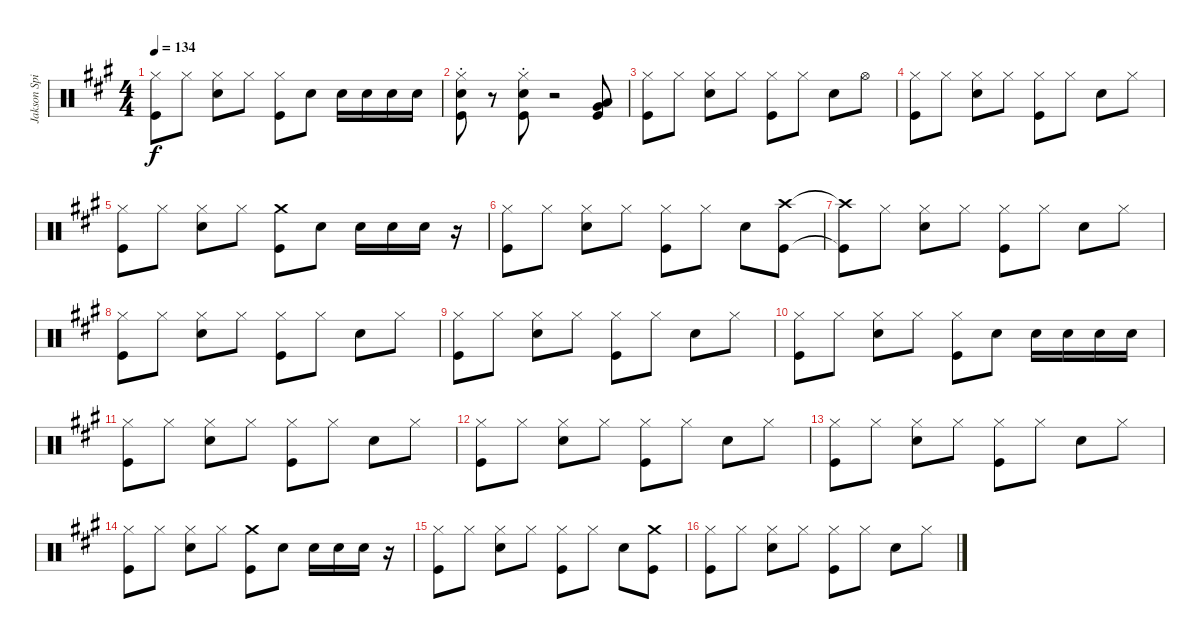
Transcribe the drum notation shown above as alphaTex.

\track ("Jakson Spires Drums" "Jakson Spi") {instrument percussion}
\staff {score}
\articulation defaults
\ts (4 4)
\tempo 134
\clef neutral
\ks a
("Hi-Hat (closed)" "Kick (hit)").8{dy f} "Hi-Hat (closed)".8 ("Hi-Hat (closed)" "Snare (hit) 2").8 "Hi-Hat (closed)".8 ("Hi-Hat (closed)" "Kick (hit)").8 "Snare (hit) 2".8 "Snare (hit) 2".16 "Snare (hit) 2".16 "Snare (hit) 2".16 "Snare (hit) 2".16 |
("Hi-Hat (closed)" "Snare (hit) 2" "Kick (hit)"{st}).8 r.8 ("Hi-Hat (closed)" "Snare (hit) 2" "Kick (hit)"{st}).8 r.2 ("Very Low Tom (hit)" "Low Floor Tom (hit)" "Kick (hit)").8 |
("Hi-Hat (closed)" "Kick (hit)").8 "Hi-Hat (closed)".8 ("Hi-Hat (closed)" "Snare (hit) 2").8 "Hi-Hat (closed)".8 ("Hi-Hat (closed)" "Kick (hit)").8 "Hi-Hat (closed)".8 "Snare (hit) 2".8 "Hi-Hat (open)".8 |
("Hi-Hat (closed)" "Kick (hit)").8 "Hi-Hat (closed)".8 ("Hi-Hat (closed)" "Snare (hit) 2").8 "Hi-Hat (closed)".8 ("Hi-Hat (closed)" "Kick (hit)").8 "Hi-Hat (closed)".8 "Snare (hit) 2".8 "Hi-Hat (closed)".8 |
("Hi-Hat (closed)" "Kick (hit)").8 "Hi-Hat (closed)".8 ("Hi-Hat (closed)" "Snare (hit) 2").8 "Hi-Hat (closed)".8 ("Crash medium (hit)" "Kick (hit)").8 "Snare (hit) 2".8 "Snare (hit) 2".16 "Snare (hit) 2".16 "Snare (hit) 2".16 r.16 |
("Hi-Hat (closed)" "Kick (hit)").8 "Hi-Hat (closed)".8 ("Hi-Hat (closed)" "Snare (hit) 2").8 "Hi-Hat (closed)".8 ("Hi-Hat (closed)" "Kick (hit)").8 "Hi-Hat (closed)".8 "Snare (hit) 2".8 ("Crash high (hit)" "Kick (hit)").8 |
("Crash high (hit)"{t} "Kick (hit)"{t}).8 "Hi-Hat (closed)".8 ("Hi-Hat (closed)" "Snare (hit) 2").8 "Hi-Hat (closed)".8 ("Hi-Hat (closed)" "Kick (hit)").8 "Hi-Hat (closed)".8 "Snare (hit) 2".8 "Hi-Hat (closed)".8 |
("Hi-Hat (closed)" "Kick (hit)").8 "Hi-Hat (closed)".8 ("Hi-Hat (closed)" "Snare (hit) 2").8 "Hi-Hat (closed)".8 ("Hi-Hat (closed)" "Kick (hit)").8 "Hi-Hat (closed)".8 "Snare (hit) 2".8 "Hi-Hat (closed)".8 |
("Hi-Hat (closed)" "Kick (hit)").8 "Hi-Hat (closed)".8 ("Hi-Hat (closed)" "Snare (hit) 2").8 "Hi-Hat (closed)".8 ("Hi-Hat (closed)" "Kick (hit)").8 "Hi-Hat (closed)".8 "Snare (hit) 2".8 "Hi-Hat (closed)".8 |
("Hi-Hat (closed)" "Kick (hit)").8 "Hi-Hat (closed)".8 ("Hi-Hat (closed)" "Snare (hit) 2").8 "Hi-Hat (closed)".8 ("Hi-Hat (closed)" "Kick (hit)").8 "Snare (hit) 2".8 "Snare (hit) 2".16 "Snare (hit) 2".16 "Snare (hit) 2".16 "Snare (hit) 2".16 |
("Hi-Hat (closed)" "Kick (hit)").8 "Hi-Hat (closed)".8 ("Hi-Hat (closed)" "Snare (hit) 2").8 "Hi-Hat (closed)".8 ("Hi-Hat (closed)" "Kick (hit)").8 "Hi-Hat (closed)".8 "Snare (hit) 2".8 "Hi-Hat (closed)".8 |
("Hi-Hat (closed)" "Kick (hit)").8 "Hi-Hat (closed)".8 ("Hi-Hat (closed)" "Snare (hit) 2").8 "Hi-Hat (closed)".8 ("Hi-Hat (closed)" "Kick (hit)").8 "Hi-Hat (closed)".8 "Snare (hit) 2".8 "Hi-Hat (closed)".8 |
("Hi-Hat (closed)" "Kick (hit)").8 "Hi-Hat (closed)".8 ("Hi-Hat (closed)" "Snare (hit) 2").8 "Hi-Hat (closed)".8 ("Hi-Hat (closed)" "Kick (hit)").8 "Hi-Hat (closed)".8 "Snare (hit) 2".8 "Hi-Hat (closed)".8 |
("Hi-Hat (closed)" "Kick (hit)").8 "Hi-Hat (closed)".8 ("Hi-Hat (closed)" "Snare (hit) 2").8 "Hi-Hat (closed)".8 ("Crash medium (hit)" "Kick (hit)").8 "Snare (hit) 2".8 "Snare (hit) 2".16 "Snare (hit) 2".16 "Snare (hit) 2".16 r.16 |
("Hi-Hat (closed)" "Kick (hit)").8 "Hi-Hat (closed)".8 ("Hi-Hat (closed)" "Snare (hit) 2").8 "Hi-Hat (closed)".8 ("Hi-Hat (closed)" "Kick (hit)").8 "Hi-Hat (closed)".8 "Snare (hit) 2".8 ("Crash medium (hit)" "Kick (hit)").8 |
("Hi-Hat (closed)" "Kick (hit)").8 "Hi-Hat (closed)".8 ("Hi-Hat (closed)" "Snare (hit) 2").8 "Hi-Hat (closed)".8 ("Hi-Hat (closed)" "Kick (hit)").8 "Hi-Hat (closed)".8 "Snare (hit) 2".8 "Hi-Hat (closed)".8
